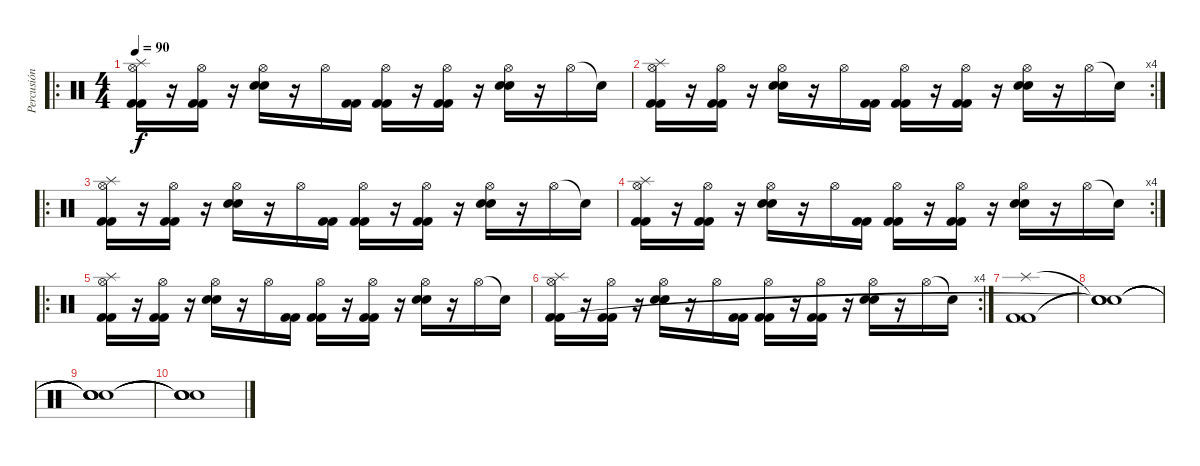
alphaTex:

\track ("Percusión" "Percusión") {instrument percussion}
\staff {score}
\articulation defaults
\ro
\ts (4 4)
\tempo 90
\clef neutral
\ks c
("Hi-Hat (open)" "Splash (hit)" "Kick (hit) 2" "Kick (hit) 2").16{dy f} r.16 ("Hi-Hat (open)" "Kick (hit) 2" "Kick (hit) 2").16 r.16 ("Hi-Hat (open)" "Electric Snare (hit)" "Electric Snare (hit)").16 r.16 "Hi-Hat (open)".16 ("Kick (hit) 2" "Kick (hit) 2").16 ("Hi-Hat (open)" "Kick (hit) 2" "Kick (hit) 2").16 r.16 ("Hi-Hat (open)" "Kick (hit) 2" "Kick (hit) 2").16 r.16 ("Hi-Hat (open)" "Electric Snare (hit)" "Electric Snare (hit)").16 r.16 "Hi-Hat (open)".16 "Snare (hit)"{t}.16 |
\rc 4
("Hi-Hat (open)" "Splash (hit)" "Kick (hit) 2" "Kick (hit) 2").16 r.16 ("Hi-Hat (open)" "Kick (hit) 2" "Kick (hit) 2").16 r.16 ("Hi-Hat (open)" "Electric Snare (hit)" "Electric Snare (hit)").16 r.16 "Hi-Hat (open)".16 ("Kick (hit) 2" "Kick (hit) 2").16 ("Hi-Hat (open)" "Kick (hit) 2" "Kick (hit) 2").16 r.16 ("Hi-Hat (open)" "Kick (hit) 2" "Kick (hit) 2").16 r.16 ("Hi-Hat (open)" "Electric Snare (hit)" "Electric Snare (hit)").16 r.16 "Hi-Hat (open)".16 "Snare (hit)"{t}.16 |
\ro
("Hi-Hat (open)" "Splash (hit)" "Kick (hit) 2" "Kick (hit) 2").16 r.16 ("Hi-Hat (open)" "Kick (hit) 2" "Kick (hit) 2").16 r.16 ("Hi-Hat (open)" "Electric Snare (hit)" "Electric Snare (hit)").16 r.16 "Hi-Hat (open)".16 ("Kick (hit) 2" "Kick (hit) 2").16 ("Hi-Hat (open)" "Kick (hit) 2" "Kick (hit) 2").16 r.16 ("Hi-Hat (open)" "Kick (hit) 2" "Kick (hit) 2").16 r.16 ("Hi-Hat (open)" "Electric Snare (hit)" "Electric Snare (hit)").16 r.16 "Hi-Hat (open)".16 "Snare (hit)"{t}.16 |
\rc 4
("Hi-Hat (open)" "Splash (hit)" "Kick (hit) 2" "Kick (hit) 2").16 r.16 ("Hi-Hat (open)" "Kick (hit) 2" "Kick (hit) 2").16 r.16 ("Hi-Hat (open)" "Electric Snare (hit)" "Electric Snare (hit)").16 r.16 "Hi-Hat (open)".16 ("Kick (hit) 2" "Kick (hit) 2").16 ("Hi-Hat (open)" "Kick (hit) 2" "Kick (hit) 2").16 r.16 ("Hi-Hat (open)" "Kick (hit) 2" "Kick (hit) 2").16 r.16 ("Hi-Hat (open)" "Electric Snare (hit)" "Electric Snare (hit)").16 r.16 "Hi-Hat (open)".16 "Snare (hit)"{t}.16 |
\ro
("Hi-Hat (open)" "Splash (hit)" "Kick (hit) 2" "Kick (hit) 2").16 r.16 ("Hi-Hat (open)" "Kick (hit) 2" "Kick (hit) 2").16 r.16 ("Hi-Hat (open)" "Electric Snare (hit)" "Electric Snare (hit)").16 r.16 "Hi-Hat (open)".16 ("Kick (hit) 2" "Kick (hit) 2").16 ("Hi-Hat (open)" "Kick (hit) 2" "Kick (hit) 2").16 r.16 ("Hi-Hat (open)" "Kick (hit) 2" "Kick (hit) 2").16 r.16 ("Hi-Hat (open)" "Electric Snare (hit)" "Electric Snare (hit)").16 r.16 "Hi-Hat (open)".16 "Snare (hit)"{t}.16 |
\rc 4
("Hi-Hat (open)" "Splash (hit)" "Kick (hit) 2" "Kick (hit) 2").16 r.16 ("Hi-Hat (open)" "Kick (hit) 2" "Kick (hit) 2").16 r.16 ("Hi-Hat (open)" "Electric Snare (hit)" "Electric Snare (hit)").16 r.16 "Hi-Hat (open)".16 ("Kick (hit) 2" "Kick (hit) 2").16 ("Hi-Hat (open)" "Kick (hit) 2" "Kick (hit) 2").16 r.16 ("Hi-Hat (open)" "Kick (hit) 2" "Kick (hit) 2").16 r.16 ("Hi-Hat (open)" "Electric Snare (hit)" "Electric Snare (hit)").16 r.16 "Hi-Hat (open)".16 "Snare (hit)"{t}.16 |
("Splash (hit)" "Kick (hit) 2" "Kick (hit) 2").1 |
("Snare (hit)"{t} "Snare (hit)"{t} "Snare (hit)"{t} "Snare (hit)"{t}).1 |
("Snare (hit)"{t} "Snare (hit)"{t} "Snare (hit)"{t} "Snare (hit)"{t}).1 |
("Snare (hit)"{t} "Snare (hit)"{t} "Snare (hit)"{t} "Snare (hit)"{t}).1
